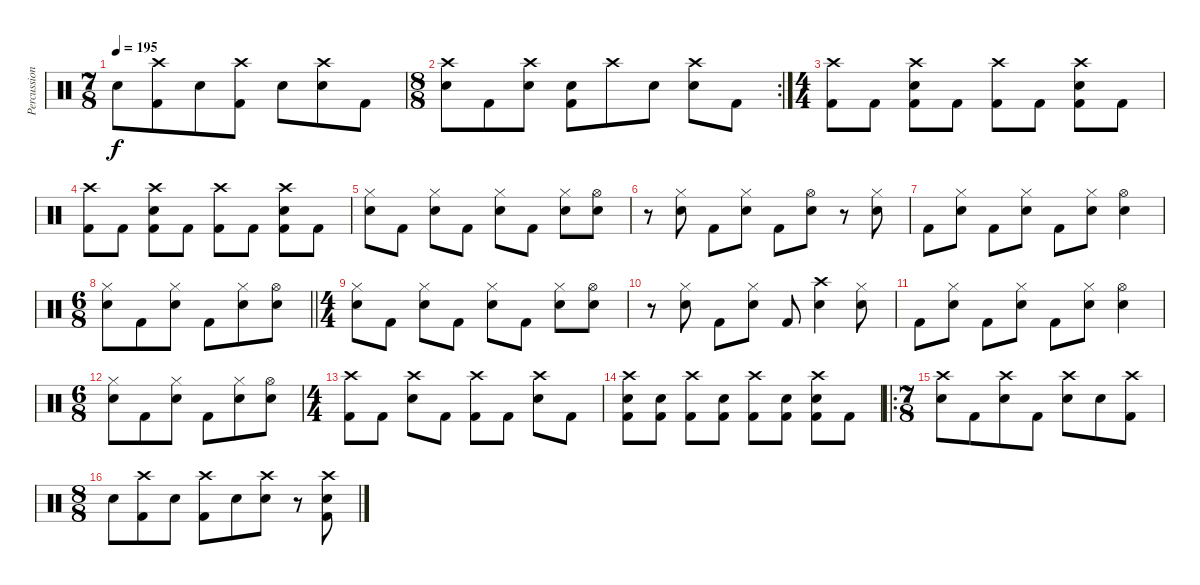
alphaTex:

\track ("Percussion" "Percussion") {instrument percussion}
\staff {score}
\articulation defaults
\ts (7 8)
\tempo 195
\clef neutral
\ks c "Electric Snare (hit)".8{dy f}
("Kick (hit) 2" "Crash high (hit)").8 "Electric Snare (hit)".8 ("Kick (hit) 2" "Crash high (hit)").8 "Electric Snare (hit)".8 ("Crash high (hit)" "Electric Snare (hit)").8 "Kick (hit) 2".8 |
\rc 2
\ts (8 8)
("Crash high (hit)" "Electric Snare (hit)").8 "Kick (hit) 2".8 ("Crash high (hit)" "Electric Snare (hit)").8 ("Kick (hit) 2" "Electric Snare (hit)").8 "Crash high (hit)".8 "Electric Snare (hit)".8 ("Crash high (hit)" "Electric Snare (hit)").8 "Kick (hit) 2".8 |
\ts (4 4)
("Kick (hit) 2" "Crash high (hit)").8 "Kick (hit) 2".8 ("Kick (hit) 2" "Crash high (hit)" "Electric Snare (hit)").8 "Kick (hit) 2".8 ("Kick (hit) 2" "Crash high (hit)").8 "Kick (hit) 2".8 ("Kick (hit) 2" "Crash high (hit)" "Electric Snare (hit)").8 "Kick (hit) 2".8 |
("Kick (hit) 2" "Crash high (hit)").8 "Kick (hit) 2".8 ("Kick (hit) 2" "Crash high (hit)" "Electric Snare (hit)").8 "Kick (hit) 2".8 ("Kick (hit) 2" "Crash high (hit)").8 "Kick (hit) 2".8 ("Kick (hit) 2" "Crash high (hit)" "Electric Snare (hit)").8 "Kick (hit) 2".8 |
("Hi-Hat (closed)" "Electric Snare (hit)").8 "Kick (hit) 2".8 ("Hi-Hat (closed)" "Electric Snare (hit)").8 "Kick (hit) 2".8 ("Hi-Hat (closed)" "Electric Snare (hit)").8 "Kick (hit) 2".8 ("Hi-Hat (closed)" "Electric Snare (hit)").8 ("Hi-Hat (open)" "Electric Snare (hit)").8 |
r.8 ("Hi-Hat (closed)" "Electric Snare (hit)").8 "Kick (hit) 2".8 ("Hi-Hat (closed)" "Electric Snare (hit)").8 "Kick (hit) 2".8 ("Hi-Hat (open)" "Electric Snare (hit)").8 r.8 ("Hi-Hat (closed)" "Electric Snare (hit)").8 |
"Kick (hit) 2".8 ("Hi-Hat (closed)" "Electric Snare (hit)").8 "Kick (hit) 2".8 ("Hi-Hat (closed)" "Electric Snare (hit)").8 "Kick (hit) 2".8 ("Hi-Hat (closed)" "Electric Snare (hit)").8 ("Hi-Hat (open)" "Electric Snare (hit)").4 |
\ts (6 8)
\barLineRight lightlight
("Hi-Hat (closed)" "Electric Snare (hit)").8 "Kick (hit) 2".8 ("Hi-Hat (closed)" "Electric Snare (hit)").8 "Kick (hit) 2".8 ("Hi-Hat (closed)" "Electric Snare (hit)").8 ("Hi-Hat (open)" "Electric Snare (hit)").8 |
\ts (4 4)
("Hi-Hat (closed)" "Electric Snare (hit)").8 "Kick (hit) 2".8 ("Hi-Hat (closed)" "Electric Snare (hit)").8 "Kick (hit) 2".8 ("Hi-Hat (closed)" "Electric Snare (hit)").8 "Kick (hit) 2".8 ("Hi-Hat (closed)" "Electric Snare (hit)").8 ("Hi-Hat (open)" "Electric Snare (hit)").8 |
r.8 ("Hi-Hat (closed)" "Electric Snare (hit)").8 "Kick (hit) 2".8 ("Hi-Hat (closed)" "Electric Snare (hit)").8 "Kick (hit) 2".8 ("Crash high (hit)" "Electric Snare (hit)").4 ("Hi-Hat (closed)" "Electric Snare (hit)").8 |
"Kick (hit) 2".8 ("Hi-Hat (closed)" "Electric Snare (hit)").8 "Kick (hit) 2".8 ("Hi-Hat (closed)" "Electric Snare (hit)").8 "Kick (hit) 2".8 ("Hi-Hat (closed)" "Electric Snare (hit)").8 ("Hi-Hat (open)" "Electric Snare (hit)").4 |
\ts (6 8)
("Hi-Hat (closed)" "Electric Snare (hit)").8 "Kick (hit) 2".8 ("Hi-Hat (closed)" "Electric Snare (hit)").8 "Kick (hit) 2".8 ("Hi-Hat (closed)" "Electric Snare (hit)").8 ("Hi-Hat (open)" "Electric Snare (hit)").8 |
\ts (4 4)
("Kick (hit) 2" "Crash high (hit)").8 "Kick (hit) 2".8 ("Crash high (hit)" "Electric Snare (hit)").8 "Kick (hit) 2".8 ("Kick (hit) 2" "Crash high (hit)").8 "Kick (hit) 2".8 ("Crash high (hit)" "Electric Snare (hit)").8 "Kick (hit) 2".8 |
("Kick (hit) 2" "Crash high (hit)" "Electric Snare (hit)").8 ("Kick (hit) 2" "Electric Snare (hit)").8 ("Kick (hit) 2" "Crash high (hit)").8 ("Kick (hit) 2" "Electric Snare (hit)").8 ("Kick (hit) 2" "Crash high (hit)").8 ("Kick (hit) 2" "Electric Snare (hit)").8 ("Kick (hit) 2" "Crash high (hit)" "Electric Snare (hit)").8 "Kick (hit) 2".8 |
\ro
\ts (7 8)
("Crash high (hit)" "Electric Snare (hit)").8 "Kick (hit) 2".8 ("Crash high (hit)" "Electric Snare (hit)").8 "Kick (hit) 2".8 ("Crash high (hit)" "Electric Snare (hit)").8 "Electric Snare (hit)".8 ("Kick (hit) 2" "Crash high (hit)").8 |
\ts (8 8)
"Electric Snare (hit)".8 ("Kick (hit) 2" "Crash high (hit)").8 "Electric Snare (hit)".8 ("Kick (hit) 2" "Crash high (hit)").8 "Electric Snare (hit)".8 ("Crash high (hit)" "Electric Snare (hit)").8 r.8 ("Kick (hit) 2" "Crash high (hit)" "Electric Snare (hit)").8
